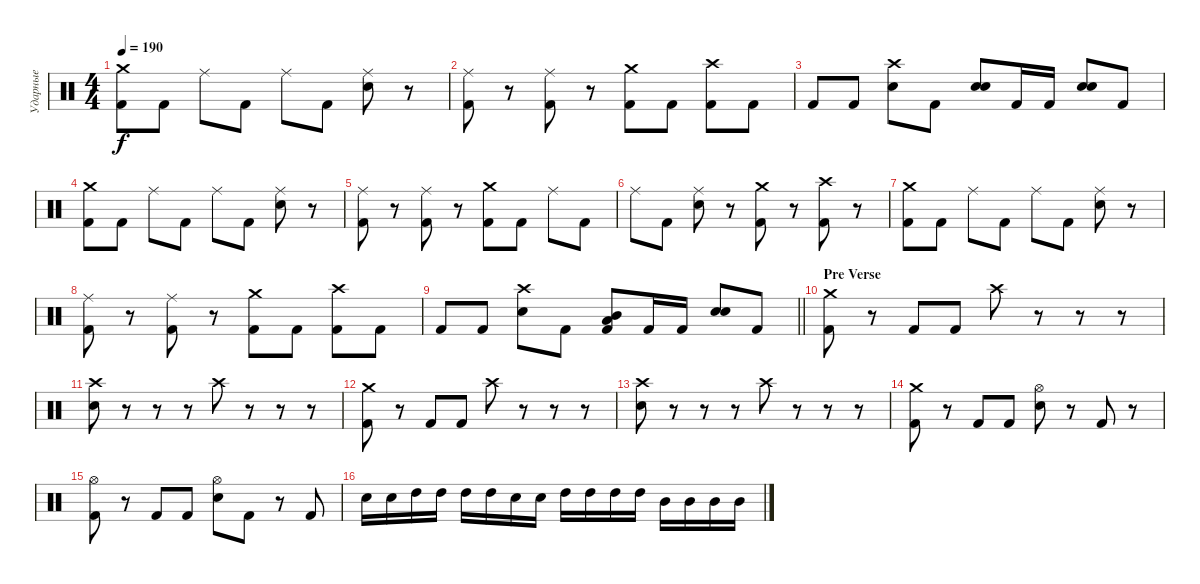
\track ("Ударные" "Ударные") {instrument percussion}
\staff {score}
\articulation defaults
\ts (4 4)
\tempo 190
\clef neutral
\ks c
("Crash medium (hit)" "Kick (hit) 2").8{dy f} "Kick (hit) 2".8 "Ride (middle)".8 "Kick (hit) 2".8 "Ride (middle)".8 "Kick (hit) 2".8 ("Ride (middle)" "Electric Snare (hit)").8 r.8 |
("Ride (middle)" "Kick (hit) 2").8 r.8 ("Ride (middle)" "Kick (hit) 2").8 r.8 ("Crash medium (hit)" "Kick (hit) 2").8 "Kick (hit) 2".8 ("Crash high (hit)" "Kick (hit) 2").8 "Kick (hit) 2".8 |
"Kick (hit) 2".8 "Kick (hit) 2".8 ("Crash high (hit)" "Electric Snare (hit)").8 "Kick (hit) 2".8 ("Electric Snare (hit)" "Electric Snare (hit)").8 "Kick (hit) 2".16 "Kick (hit) 2".16 ("Electric Snare (hit)" "Electric Snare (hit)").8 "Kick (hit) 2".8 |
("Crash medium (hit)" "Kick (hit) 2").8 "Kick (hit) 2".8 "Ride (middle)".8 "Kick (hit) 2".8 "Ride (middle)".8 "Kick (hit) 2".8 ("Ride (middle)" "Electric Snare (hit)").8 r.8 |
("Ride (middle)" "Kick (hit) 2").8 r.8 ("Ride (middle)" "Kick (hit) 2").8 r.8 ("Crash medium (hit)" "Kick (hit) 2").8 "Kick (hit) 2".8 "Ride (middle)".8 "Kick (hit) 2".8 |
"Ride (middle)".8 "Kick (hit) 2".8 ("Ride (middle)" "Electric Snare (hit)").8 r.8 ("Crash medium (hit)" "Kick (hit) 2").8 r.8 ("Crash high (hit)" "Kick (hit) 2").8 r.8 |
("Crash medium (hit)" "Kick (hit) 2").8 "Kick (hit) 2".8 "Ride (middle)".8 "Kick (hit) 2".8 "Ride (middle)".8 "Kick (hit) 2".8 ("Ride (middle)" "Electric Snare (hit)").8 r.8 |
("Ride (middle)" "Kick (hit) 2").8 r.8 ("Ride (middle)" "Kick (hit) 2").8 r.8 ("Crash medium (hit)" "Kick (hit) 2").8 "Kick (hit) 2".8 ("Crash high (hit)" "Kick (hit) 2").8 "Kick (hit) 2".8 |
\barLineRight lightlight "Kick (hit) 2".8 "Kick (hit) 2".8
("Crash high (hit)" "Electric Snare (hit)").8 "Kick (hit) 2".8 ("Low Tom (hit)" "Mid Tom (hit)" "Kick (hit) 2").8 "Kick (hit) 2".16 "Kick (hit) 2".16 ("Electric Snare (hit)" "Electric Snare (hit)").8 "Kick (hit) 2".8 |
\section ("" "Pre Verse")
("Crash medium (hit)" "Kick (hit) 2").8 r.8 "Kick (hit) 2".8 "Kick (hit) 2".8 "Crash high (hit)".8 r.8 r.8 r.8 |
("Crash high (hit)" "Electric Snare (hit)").8 r.8 r.8 r.8 "Crash high (hit)".8 r.8 r.8 r.8 |
("Crash medium (hit)" "Kick (hit) 2").8 r.8 "Kick (hit) 2".8 "Kick (hit) 2".8 "Crash high (hit)".8 r.8 r.8 r.8 |
("Crash high (hit)" "Electric Snare (hit)").8 r.8 r.8 r.8 "Crash high (hit)".8 r.8 r.8 r.8 |
("Crash medium (hit)" "Kick (hit) 2").8 r.8 "Kick (hit) 2".8 "Kick (hit) 2".8 ("Hi-Hat (open)" "Electric Snare (hit)").8 r.8 "Kick (hit) 2".8 r.8 |
("Hi-Hat (open)" "Kick (hit) 2").8 r.8 "Kick (hit) 2".8 "Kick (hit) 2".8 ("Hi-Hat (open)" "Electric Snare (hit)").8 "Kick (hit) 2".8 r.8 "Kick (hit) 2".8 |
"Electric Snare (hit)".16 "Electric Snare (hit)".16 "High Tom (hit)".16 "High Tom (hit)".16 "High Tom (hit)".16 "High Tom (hit)".16 "Electric Snare (hit)".16 "Electric Snare (hit)".16 "High Tom (hit)".16 "High Tom (hit)".16 "High Tom (hit)".16 "High Tom (hit)".16 "Mid Tom (hit)".16 "Mid Tom (hit)".16 "Mid Tom (hit)".16 "Mid Tom (hit)".16
